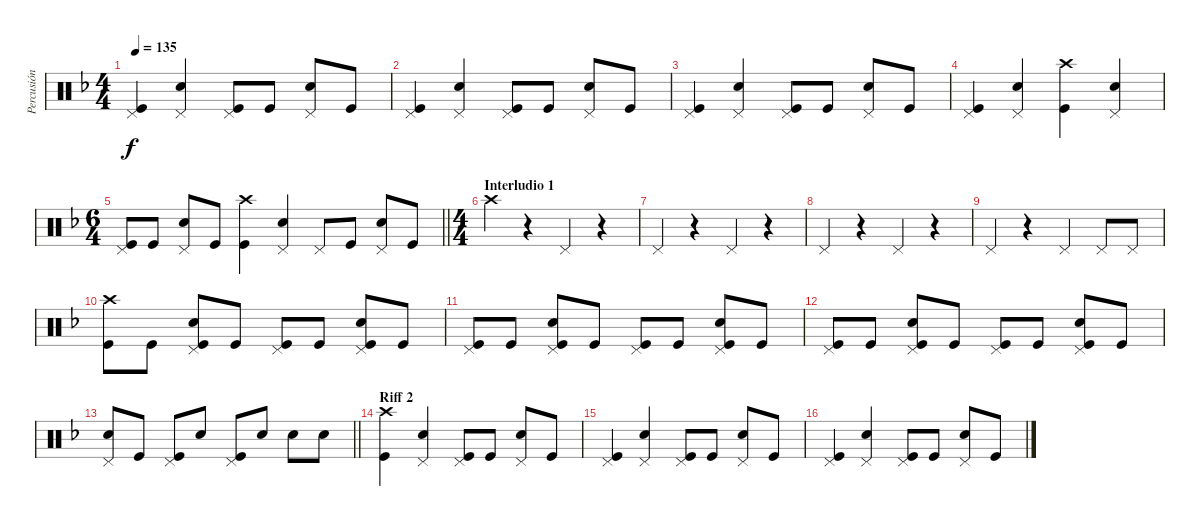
\track ("Percusión" "Percusión") {instrument percussion}
\staff {score}
\articulation defaults
\ts (4 4)
\tempo 135
\clef neutral
\ks dminor
("Pedal Hi-Hat (hit)" "Kick (hit)").4{dy f} ("Pedal Hi-Hat (hit)" "Snare (hit) 2").4 ("Pedal Hi-Hat (hit)" "Kick (hit)").8 "Kick (hit)".8 ("Pedal Hi-Hat (hit)" "Snare (hit) 2").8 "Kick (hit)".8 |
("Pedal Hi-Hat (hit)" "Kick (hit)").4 ("Pedal Hi-Hat (hit)" "Snare (hit) 2").4 ("Pedal Hi-Hat (hit)" "Kick (hit)").8 "Kick (hit)".8 ("Pedal Hi-Hat (hit)" "Snare (hit) 2").8 "Kick (hit)".8 |
("Pedal Hi-Hat (hit)" "Kick (hit)").4 ("Pedal Hi-Hat (hit)" "Snare (hit) 2").4 ("Pedal Hi-Hat (hit)" "Kick (hit)").8 "Kick (hit)".8 ("Pedal Hi-Hat (hit)" "Snare (hit) 2").8 "Kick (hit)".8 |
("Pedal Hi-Hat (hit)" "Kick (hit)").4 ("Pedal Hi-Hat (hit)" "Snare (hit) 2").4 ("Crash high (hit)" "Kick (hit)").4 ("Pedal Hi-Hat (hit)" "Snare (hit) 2").4 |
\ts (6 4)
\barLineRight lightlight
("Pedal Hi-Hat (hit)" "Kick (hit)").8 "Kick (hit)".8 ("Pedal Hi-Hat (hit)" "Snare (hit) 2").8 "Kick (hit)".8 ("Crash high (hit)" "Kick (hit)").4 ("Pedal Hi-Hat (hit)" "Snare (hit) 2").4 "Pedal Hi-Hat (hit)".8 "Kick (hit)".8 ("Pedal Hi-Hat (hit)" "Snare (hit) 2").8 "Kick (hit)".8 |
\ts (4 4)
\section ("" "Interludio 1")
"Crash high (hit)".4 r.4 "Pedal Hi-Hat (hit)".4 r.4 |
"Pedal Hi-Hat (hit)".4 r.4 "Pedal Hi-Hat (hit)".4 r.4 |
"Pedal Hi-Hat (hit)".4 r.4 "Pedal Hi-Hat (hit)".4 r.4 |
"Pedal Hi-Hat (hit)".4 r.4 "Pedal Hi-Hat (hit)".4 "Pedal Hi-Hat (hit)".8 "Pedal Hi-Hat (hit)".8 |
("Crash high (hit)" "Kick (hit)").8 "Kick (hit)".8 ("Pedal Hi-Hat (hit)" "Snare (hit) 2" "Kick (hit)").8 "Kick (hit)".8 ("Pedal Hi-Hat (hit)" "Kick (hit)").8 "Kick (hit)".8 ("Pedal Hi-Hat (hit)" "Snare (hit) 2" "Kick (hit)").8 "Kick (hit)".8 |
("Pedal Hi-Hat (hit)" "Kick (hit)").8 "Kick (hit)".8 ("Pedal Hi-Hat (hit)" "Snare (hit) 2" "Kick (hit)").8 "Kick (hit)".8 ("Pedal Hi-Hat (hit)" "Kick (hit)").8 "Kick (hit)".8 ("Pedal Hi-Hat (hit)" "Snare (hit) 2" "Kick (hit)").8 "Kick (hit)".8 |
("Pedal Hi-Hat (hit)" "Kick (hit)").8 "Kick (hit)".8 ("Pedal Hi-Hat (hit)" "Snare (hit) 2" "Kick (hit)").8 "Kick (hit)".8 ("Pedal Hi-Hat (hit)" "Kick (hit)").8 "Kick (hit)".8 ("Pedal Hi-Hat (hit)" "Snare (hit) 2" "Kick (hit)").8 "Kick (hit)".8 |
\barLineRight lightlight
("Pedal Hi-Hat (hit)" "Snare (hit) 2").8 "Kick (hit)".8 ("Pedal Hi-Hat (hit)" "Kick (hit)").8 "Snare (hit) 2".8 ("Pedal Hi-Hat (hit)" "Kick (hit)").8 "Snare (hit) 2".8 "Snare (hit) 2".8 "Snare (hit) 2".8 |
\section ("" "Riff 2")
("Crash high (hit)" "Kick (hit)").4 ("Pedal Hi-Hat (hit)" "Snare (hit) 2").4 ("Pedal Hi-Hat (hit)" "Kick (hit)").8 "Kick (hit)".8 ("Pedal Hi-Hat (hit)" "Snare (hit) 2").8 "Kick (hit)".8 |
("Pedal Hi-Hat (hit)" "Kick (hit)").4 ("Pedal Hi-Hat (hit)" "Snare (hit) 2").4 ("Pedal Hi-Hat (hit)" "Kick (hit)").8 "Kick (hit)".8 ("Pedal Hi-Hat (hit)" "Snare (hit) 2").8 "Kick (hit)".8 |
("Pedal Hi-Hat (hit)" "Kick (hit)").4 ("Pedal Hi-Hat (hit)" "Snare (hit) 2").4 ("Pedal Hi-Hat (hit)" "Kick (hit)").8 "Kick (hit)".8 ("Pedal Hi-Hat (hit)" "Snare (hit) 2").8 "Kick (hit)".8
